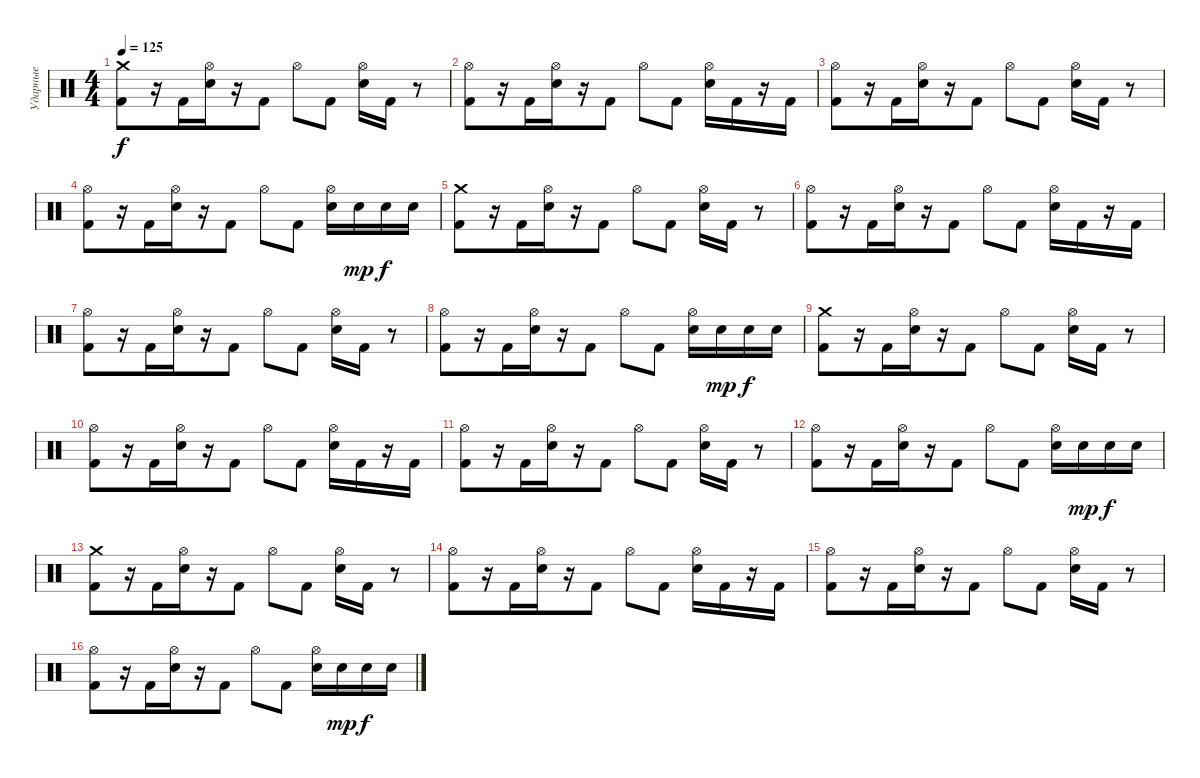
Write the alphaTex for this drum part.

\track ("Ударные" "Ударные") {instrument percussion}
\staff {score}
\articulation defaults
\ts (4 4)
\tempo 125
\clef neutral
\ks c
("Crash medium (hit)" "Kick (hit) 2").8{dy f} r.16 "Kick (hit) 2".16{beam merge} ("Hi-Hat (open)" "Electric Snare (hit)").16 r.16 "Kick (hit) 2".8 "Hi-Hat (open)".8 "Kick (hit) 2".8 ("Hi-Hat (open)" "Electric Snare (hit)").16 "Kick (hit) 2".16 r.8 |
("Hi-Hat (open)" "Kick (hit) 2").8 r.16 "Kick (hit) 2".16{beam merge} ("Hi-Hat (open)" "Electric Snare (hit)").16 r.16 "Kick (hit) 2".8 "Hi-Hat (open)".8 "Kick (hit) 2".8 ("Hi-Hat (open)" "Electric Snare (hit)").16 "Kick (hit) 2".16 r.16 "Kick (hit) 2".16 |
("Hi-Hat (open)" "Kick (hit) 2").8 r.16 "Kick (hit) 2".16{beam merge} ("Hi-Hat (open)" "Electric Snare (hit)").16 r.16 "Kick (hit) 2".8 "Hi-Hat (open)".8 "Kick (hit) 2".8 ("Hi-Hat (open)" "Electric Snare (hit)").16 "Kick (hit) 2".16 r.8 |
("Hi-Hat (open)" "Kick (hit) 2").8 r.16 "Kick (hit) 2".16{beam merge} ("Hi-Hat (open)" "Electric Snare (hit)").16 r.16 "Kick (hit) 2".8 "Hi-Hat (open)".8 "Kick (hit) 2".8 ("Hi-Hat (open)" "Electric Snare (hit)").16 "Electric Snare (hit)".16{dy mp} "Electric Snare (hit)".16{dy f} "Electric Snare (hit)".16 |
("Crash medium (hit)" "Kick (hit) 2").8 r.16 "Kick (hit) 2".16{beam merge} ("Hi-Hat (open)" "Electric Snare (hit)").16 r.16 "Kick (hit) 2".8 "Hi-Hat (open)".8 "Kick (hit) 2".8 ("Hi-Hat (open)" "Electric Snare (hit)").16 "Kick (hit) 2".16 r.8 |
("Hi-Hat (open)" "Kick (hit) 2").8 r.16 "Kick (hit) 2".16{beam merge} ("Hi-Hat (open)" "Electric Snare (hit)").16 r.16 "Kick (hit) 2".8 "Hi-Hat (open)".8 "Kick (hit) 2".8 ("Hi-Hat (open)" "Electric Snare (hit)").16 "Kick (hit) 2".16 r.16 "Kick (hit) 2".16 |
("Hi-Hat (open)" "Kick (hit) 2").8 r.16 "Kick (hit) 2".16{beam merge} ("Hi-Hat (open)" "Electric Snare (hit)").16 r.16 "Kick (hit) 2".8 "Hi-Hat (open)".8 "Kick (hit) 2".8 ("Hi-Hat (open)" "Electric Snare (hit)").16 "Kick (hit) 2".16 r.8 |
("Hi-Hat (open)" "Kick (hit) 2").8 r.16 "Kick (hit) 2".16{beam merge} ("Hi-Hat (open)" "Electric Snare (hit)").16 r.16 "Kick (hit) 2".8 "Hi-Hat (open)".8 "Kick (hit) 2".8 ("Hi-Hat (open)" "Electric Snare (hit)").16 "Electric Snare (hit)".16{dy mp} "Electric Snare (hit)".16{dy f} "Electric Snare (hit)".16 |
("Crash medium (hit)" "Kick (hit) 2").8 r.16 "Kick (hit) 2".16{beam merge} ("Hi-Hat (open)" "Electric Snare (hit)").16 r.16 "Kick (hit) 2".8 "Hi-Hat (open)".8 "Kick (hit) 2".8 ("Hi-Hat (open)" "Electric Snare (hit)").16 "Kick (hit) 2".16 r.8 |
("Hi-Hat (open)" "Kick (hit) 2").8 r.16 "Kick (hit) 2".16{beam merge} ("Hi-Hat (open)" "Electric Snare (hit)").16 r.16 "Kick (hit) 2".8 "Hi-Hat (open)".8 "Kick (hit) 2".8 ("Hi-Hat (open)" "Electric Snare (hit)").16 "Kick (hit) 2".16 r.16 "Kick (hit) 2".16 |
("Hi-Hat (open)" "Kick (hit) 2").8 r.16 "Kick (hit) 2".16{beam merge} ("Hi-Hat (open)" "Electric Snare (hit)").16 r.16 "Kick (hit) 2".8 "Hi-Hat (open)".8 "Kick (hit) 2".8 ("Hi-Hat (open)" "Electric Snare (hit)").16 "Kick (hit) 2".16 r.8 |
("Hi-Hat (open)" "Kick (hit) 2").8 r.16 "Kick (hit) 2".16{beam merge} ("Hi-Hat (open)" "Electric Snare (hit)").16 r.16 "Kick (hit) 2".8 "Hi-Hat (open)".8 "Kick (hit) 2".8 ("Hi-Hat (open)" "Electric Snare (hit)").16 "Electric Snare (hit)".16{dy mp} "Electric Snare (hit)".16{dy f} "Electric Snare (hit)".16 |
("Crash medium (hit)" "Kick (hit) 2").8 r.16 "Kick (hit) 2".16{beam merge} ("Hi-Hat (open)" "Electric Snare (hit)").16 r.16 "Kick (hit) 2".8 "Hi-Hat (open)".8 "Kick (hit) 2".8 ("Hi-Hat (open)" "Electric Snare (hit)").16 "Kick (hit) 2".16 r.8 |
("Hi-Hat (open)" "Kick (hit) 2").8 r.16 "Kick (hit) 2".16{beam merge} ("Hi-Hat (open)" "Electric Snare (hit)").16 r.16 "Kick (hit) 2".8 "Hi-Hat (open)".8 "Kick (hit) 2".8 ("Hi-Hat (open)" "Electric Snare (hit)").16 "Kick (hit) 2".16 r.16 "Kick (hit) 2".16 |
("Hi-Hat (open)" "Kick (hit) 2").8 r.16 "Kick (hit) 2".16{beam merge} ("Hi-Hat (open)" "Electric Snare (hit)").16 r.16 "Kick (hit) 2".8 "Hi-Hat (open)".8 "Kick (hit) 2".8 ("Hi-Hat (open)" "Electric Snare (hit)").16 "Kick (hit) 2".16 r.8 |
("Hi-Hat (open)" "Kick (hit) 2").8 r.16 "Kick (hit) 2".16{beam merge} ("Hi-Hat (open)" "Electric Snare (hit)").16 r.16 "Kick (hit) 2".8 "Hi-Hat (open)".8 "Kick (hit) 2".8 ("Hi-Hat (open)" "Electric Snare (hit)").16 "Electric Snare (hit)".16{dy mp} "Electric Snare (hit)".16{dy f} "Electric Snare (hit)".16
